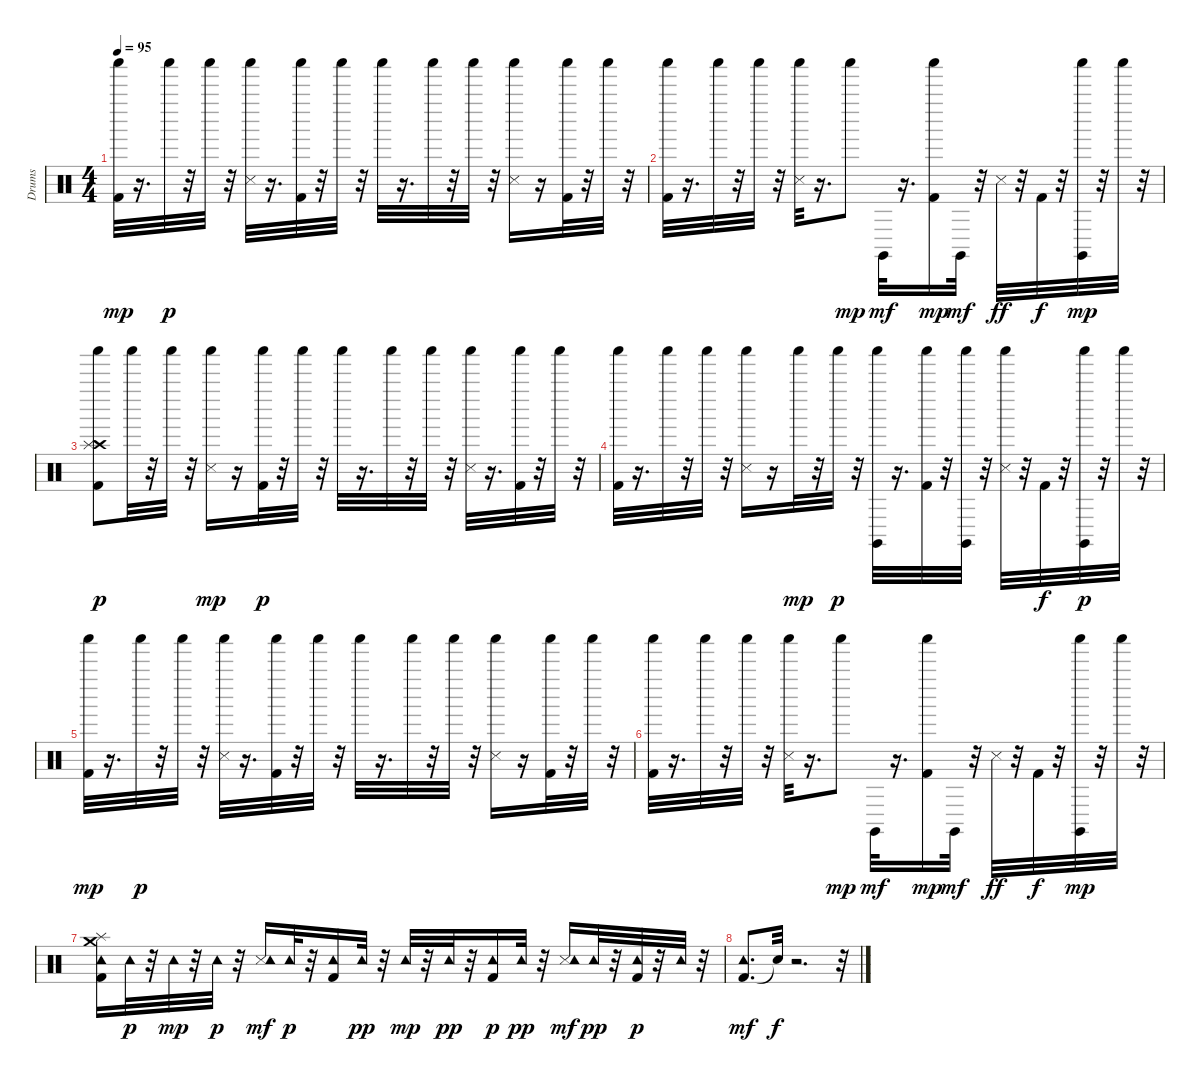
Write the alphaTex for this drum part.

\track ("Drums" "Drums") {instrument percussion}
\staff {score}
\articulation defaults
\ts (4 4)
\tempo 95
\clef neutral
\ks c
("Kick (hit) 2" "Shaker (hit)").32{dy mp} r.16{d} "Shaker (hit)".32{dy p} r.32 "Shaker (hit)".32 r.32 ("Snare (side stick) 3" "Shaker (hit)").32 r.16{d} ("Kick (hit) 2" "Shaker (hit)").32 r.32 "Shaker (hit)".32 r.32 "Shaker (hit)".32 r.16{d} "Shaker (hit)".32 r.32 "Shaker (hit)".32 r.32 ("Snare (side stick) 3" "Shaker (hit)").16 r.16 ("Kick (hit) 2" "Shaker (hit)").32 r.32 "Shaker (hit)".32 r.32 |
("Kick (hit) 2" "Shaker (hit)").32 r.16{d} "Shaker (hit)".32 r.32 "Shaker (hit)".32 r.32 ("Snare (side stick) 3" "Shaker (hit)").32 r.16{d} "Shaker (hit)".8{dy mp} "Claves (hit)".32{dy mf} r.16{d} ("Kick (hit) 2" "Shaker (hit)").16{dy mp} "Claves (hit)".32{dy mf} r.32 "Snare (side stick) 3".32{dy ff} r.32 "Kick (hit) 2".32{dy f} r.32 ("Claves (hit)" "Shaker (hit)").32{dy mp} r.32 "Shaker (hit)".32 r.32 |
("Kick (hit) 2" "Crash high (hit)" "Splash (hit)" "Shaker (hit)").8{dy p} "Shaker (hit)".32 r.32 "Shaker (hit)".32 r.32 ("Snare (side stick) 3" "Shaker (hit)").16{dy mp} r.16 ("Kick (hit) 2" "Shaker (hit)").32{dy p} r.32 "Shaker (hit)".32 r.32 "Shaker (hit)".32 r.16{d} "Shaker (hit)".32 r.32 "Shaker (hit)".32 r.32 ("Snare (side stick) 3" "Shaker (hit)").32 r.16{d} ("Kick (hit) 2" "Shaker (hit)").32 r.32 "Shaker (hit)".32 r.32 |
("Kick (hit) 2" "Shaker (hit)").32 r.16{d} "Shaker (hit)".32 r.32 "Shaker (hit)".32 r.32 ("Snare (side stick) 3" "Shaker (hit)").16 r.16 "Shaker (hit)".32{dy mp} r.32 "Shaker (hit)".32{dy p} r.32 ("Claves (hit)" "Shaker (hit)").32 r.16{d} ("Kick (hit) 2" "Shaker (hit)").32 r.32 ("Claves (hit)" "Shaker (hit)").32 r.32 ("Snare (side stick) 3" "Shaker (hit)").32 r.32 "Kick (hit) 2".32{dy f} r.32 ("Claves (hit)" "Shaker (hit)").32{dy p} r.32 "Shaker (hit)".32 r.32 |
("Kick (hit) 2" "Shaker (hit)").32{dy mp} r.16{d} "Shaker (hit)".32{dy p} r.32 "Shaker (hit)".32 r.32 ("Snare (side stick) 3" "Shaker (hit)").32 r.16{d} ("Kick (hit) 2" "Shaker (hit)").32 r.32 "Shaker (hit)".32 r.32 "Shaker (hit)".32 r.16{d} "Shaker (hit)".32 r.32 "Shaker (hit)".32 r.32 ("Snare (side stick) 3" "Shaker (hit)").16 r.16 ("Kick (hit) 2" "Shaker (hit)").32 r.32 "Shaker (hit)".32 r.32 |
("Kick (hit) 2" "Shaker (hit)").32 r.16{d} "Shaker (hit)".32 r.32 "Shaker (hit)".32 r.32 ("Snare (side stick) 3" "Shaker (hit)").32 r.16{d} "Shaker (hit)".8{dy mp} "Claves (hit)".32{dy mf} r.16{d} ("Kick (hit) 2" "Shaker (hit)").16{dy mp} "Claves (hit)".32{dy mf} r.32 "Snare (side stick) 3".32{dy ff} r.32 "Kick (hit) 2".32{dy f} r.32 ("Claves (hit)" "Shaker (hit)").32{dy mp} r.32 "Shaker (hit)".32 r.32 |
("Kick (hit) 2" "Tambourine (hit)" "Splash (hit)" "Crash medium (hit)").16 "Tambourine (hit)".32{dy p} r.32 "Tambourine (hit)".32{dy mp} r.32 "Tambourine (hit)".32{dy p} r.32 ("Snare (side stick) 3" "Tambourine (hit)").16{dy mf} "Tambourine (hit)".32{dy p} r.32 ("Kick (hit) 2" "Tambourine (hit)").16 "Tambourine (hit)".32{dy pp} r.32 "Tambourine (hit)".32{dy mp} r.32 "Tambourine (hit)".32{dy pp} r.32 ("Kick (hit) 2" "Tambourine (hit)").16{dy p} "Tambourine (hit)".32{dy pp} r.32 ("Snare (side stick) 3" "Tambourine (hit)").16{dy mf} "Tambourine (hit)".32{dy pp} r.32 ("Kick (hit) 2" "Tambourine (hit)").32{dy p} r.32 "Tambourine (hit)".32 r.32 |
("Kick (hit) 2" "Tambourine (hit)").8{d dy mf} "Snare (hit)"{t}.32{dy f} r.2{d} r.32
